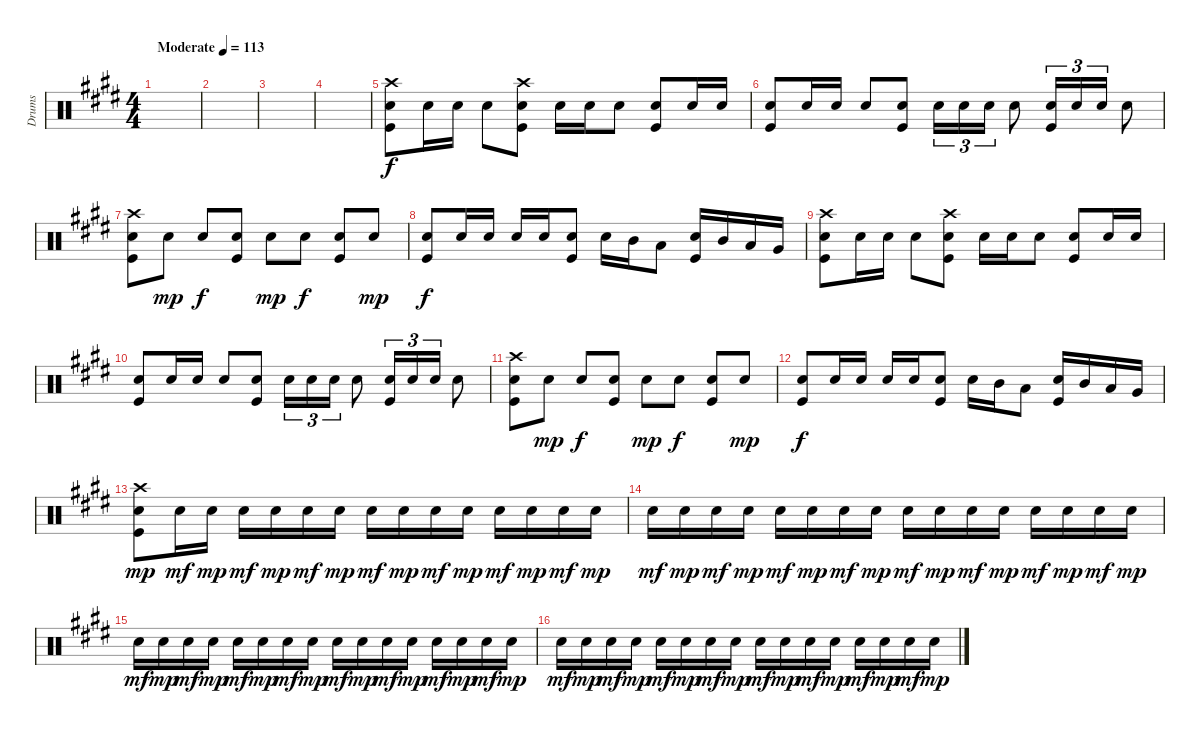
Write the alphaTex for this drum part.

\track ("Drums" "Drums") {instrument percussion}
\staff {score}
\articulation defaults
\ts (4 4)
\tempo (113 "Moderate")
\clef neutral
\ks e
|
|
|
|
("Crash high (hit)" "Snare (hit) 2" "Kick (hit)").8 "Snare (hit) 2".16 "Snare (hit) 2".16 "Snare (hit) 2".8 ("Crash high (hit)" "Snare (hit) 2" "Kick (hit)").8 "Snare (hit) 2".16 "Snare (hit) 2".16 "Snare (hit) 2".8 ("Snare (hit) 2" "Kick (hit)").8 "Snare (hit) 2".16 "Snare (hit) 2".16 |
("Snare (hit) 2" "Kick (hit)").8 "Snare (hit) 2".16 "Snare (hit) 2".16 "Snare (hit) 2".8 ("Snare (hit) 2" "Kick (hit)").8 "Snare (hit) 2".16{tu (3 2)} "Snare (hit) 2".16{tu (3 2)} "Snare (hit) 2".16{tu (3 2)} "Snare (hit) 2".8 ("Snare (hit) 2" "Kick (hit)").16{tu (3 2)} "Snare (hit) 2".16{tu (3 2)} "Snare (hit) 2".16{tu (3 2)} "Snare (hit) 2".8 |
("Crash high (hit)" "Snare (hit) 2" "Kick (hit)").8 "Snare (hit) 2".8{dy mp} "Snare (hit) 2".8{dy f} ("Snare (hit) 2" "Kick (hit)").8 "Snare (hit) 2".8{dy mp} "Snare (hit) 2".8{dy f} ("Snare (hit) 2" "Kick (hit)").8 "Snare (hit) 2".8{dy mp} |
("Snare (hit) 2" "Kick (hit)").8{dy f} "Snare (hit) 2".16 "Snare (hit) 2".16 "Snare (hit) 2".16 "Snare (hit) 2".16 ("Snare (hit) 2" "Kick (hit)").8 "Snare (hit) 2".16 "Mid Tom (hit)".16 "Low Tom (hit)".8 ("Snare (hit) 2" "Kick (hit)").16 "Mid Tom (hit)".16 "Low Tom (hit)".16 "Very Low Tom (hit)".16 |
("Crash high (hit)" "Snare (hit) 2" "Kick (hit)").8 "Snare (hit) 2".16 "Snare (hit) 2".16 "Snare (hit) 2".8 ("Crash high (hit)" "Snare (hit) 2" "Kick (hit)").8 "Snare (hit) 2".16 "Snare (hit) 2".16 "Snare (hit) 2".8 ("Snare (hit) 2" "Kick (hit)").8 "Snare (hit) 2".16 "Snare (hit) 2".16 |
("Snare (hit) 2" "Kick (hit)").8 "Snare (hit) 2".16 "Snare (hit) 2".16 "Snare (hit) 2".8 ("Snare (hit) 2" "Kick (hit)").8 "Snare (hit) 2".16{tu (3 2)} "Snare (hit) 2".16{tu (3 2)} "Snare (hit) 2".16{tu (3 2)} "Snare (hit) 2".8 ("Snare (hit) 2" "Kick (hit)").16{tu (3 2)} "Snare (hit) 2".16{tu (3 2)} "Snare (hit) 2".16{tu (3 2)} "Snare (hit) 2".8 |
("Crash high (hit)" "Snare (hit) 2" "Kick (hit)").8 "Snare (hit) 2".8{dy mp} "Snare (hit) 2".8{dy f} ("Snare (hit) 2" "Kick (hit)").8 "Snare (hit) 2".8{dy mp} "Snare (hit) 2".8{dy f} ("Snare (hit) 2" "Kick (hit)").8 "Snare (hit) 2".8{dy mp} |
("Snare (hit) 2" "Kick (hit)").8{dy f} "Snare (hit) 2".16 "Snare (hit) 2".16 "Snare (hit) 2".16 "Snare (hit) 2".16 ("Snare (hit) 2" "Kick (hit)").8 "Snare (hit) 2".16 "Mid Tom (hit)".16 "Low Tom (hit)".8 ("Snare (hit) 2" "Kick (hit)").16 "Mid Tom (hit)".16 "Low Tom (hit)".16 "Very Low Tom (hit)".16 |
("Crash high (hit)" "Snare (hit) 2" "Kick (hit)").8{dy mp} "Snare (hit) 2".16{dy mf} "Snare (hit) 2".16{dy mp} "Snare (hit) 2".16{dy mf} "Snare (hit) 2".16{dy mp} "Snare (hit) 2".16{dy mf} "Snare (hit) 2".16{dy mp} "Snare (hit) 2".16{dy mf} "Snare (hit) 2".16{dy mp} "Snare (hit) 2".16{dy mf} "Snare (hit) 2".16{dy mp} "Snare (hit) 2".16{dy mf} "Snare (hit) 2".16{dy mp} "Snare (hit) 2".16{dy mf} "Snare (hit) 2".16{dy mp} |
"Snare (hit) 2".16{dy mf} "Snare (hit) 2".16{dy mp} "Snare (hit) 2".16{dy mf} "Snare (hit) 2".16{dy mp} "Snare (hit) 2".16{dy mf} "Snare (hit) 2".16{dy mp} "Snare (hit) 2".16{dy mf} "Snare (hit) 2".16{dy mp} "Snare (hit) 2".16{dy mf} "Snare (hit) 2".16{dy mp} "Snare (hit) 2".16{dy mf} "Snare (hit) 2".16{dy mp} "Snare (hit) 2".16{dy mf} "Snare (hit) 2".16{dy mp} "Snare (hit) 2".16{dy mf} "Snare (hit) 2".16{dy mp} |
"Snare (hit) 2".16{dy mf} "Snare (hit) 2".16{dy mp} "Snare (hit) 2".16{dy mf} "Snare (hit) 2".16{dy mp} "Snare (hit) 2".16{dy mf} "Snare (hit) 2".16{dy mp} "Snare (hit) 2".16{dy mf} "Snare (hit) 2".16{dy mp} "Snare (hit) 2".16{dy mf} "Snare (hit) 2".16{dy mp} "Snare (hit) 2".16{dy mf} "Snare (hit) 2".16{dy mp} "Snare (hit) 2".16{dy mf} "Snare (hit) 2".16{dy mp} "Snare (hit) 2".16{dy mf} "Snare (hit) 2".16{dy mp} |
"Snare (hit) 2".16{dy mf} "Snare (hit) 2".16{dy mp} "Snare (hit) 2".16{dy mf} "Snare (hit) 2".16{dy mp} "Snare (hit) 2".16{dy mf} "Snare (hit) 2".16{dy mp} "Snare (hit) 2".16{dy mf} "Snare (hit) 2".16{dy mp} "Snare (hit) 2".16{dy mf} "Snare (hit) 2".16{dy mp} "Snare (hit) 2".16{dy mf} "Snare (hit) 2".16{dy mp} "Snare (hit) 2".16{dy mf} "Snare (hit) 2".16{dy mp} "Snare (hit) 2".16{dy mf} "Snare (hit) 2".16{dy mp}
